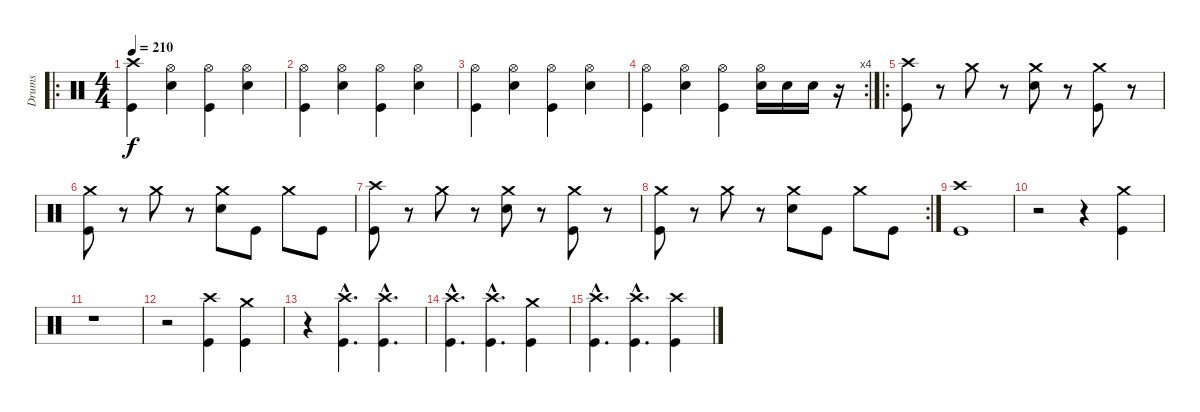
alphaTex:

\track ("Drums" "Drums") {instrument percussion}
\staff {score}
\articulation defaults
\ro
\ts (4 4)
\tempo 210
\clef neutral
\ks c
("Crash high (hit)" "Kick (hit)").4{dy f} ("Hi-Hat (open)" "Snare (hit) 2").4 ("Hi-Hat (open)" "Kick (hit)").4 ("Hi-Hat (open)" "Snare (hit) 2").4 |
("Hi-Hat (open)" "Kick (hit)").4 ("Hi-Hat (open)" "Snare (hit) 2").4 ("Hi-Hat (open)" "Kick (hit)").4 ("Hi-Hat (open)" "Snare (hit) 2").4 |
("Hi-Hat (open)" "Kick (hit)").4 ("Hi-Hat (open)" "Snare (hit) 2").4 ("Hi-Hat (open)" "Kick (hit)").4 ("Hi-Hat (open)" "Snare (hit) 2").4 |
\rc 4
("Hi-Hat (open)" "Kick (hit)").4 ("Hi-Hat (open)" "Snare (hit) 2").4 ("Hi-Hat (open)" "Kick (hit)").4 ("Hi-Hat (open)" "Snare (hit) 2").16 "Snare (hit) 2".16 "Snare (hit) 2".16 r.16 |
\ro
("Crash high (hit)" "Kick (hit)").8 r.8 "Crash medium (hit)".8 r.8 ("Crash medium (hit)" "Snare (hit) 2").8 r.8 ("Crash medium (hit)" "Kick (hit)").8 r.8 |
("Crash medium (hit)" "Kick (hit)").8 r.8 "Crash medium (hit)".8 r.8 ("Crash medium (hit)" "Snare (hit) 2").8 "Kick (hit)".8 "Crash medium (hit)".8 "Kick (hit)".8 |
("Crash high (hit)" "Kick (hit)").8 r.8 "Crash medium (hit)".8 r.8 ("Crash medium (hit)" "Snare (hit) 2").8 r.8 ("Crash medium (hit)" "Kick (hit)").8 r.8 |
\rc 2
("Crash medium (hit)" "Kick (hit)").8 r.8 "Crash medium (hit)".8 r.8 ("Crash medium (hit)" "Snare (hit) 2").8 "Kick (hit)".8 "Crash medium (hit)".8 "Kick (hit)".8 |
("Crash high (hit)" "Kick (hit)").1 |
r.2 r.4 ("Crash medium (hit)" "Kick (hit)").4 |
r.1 |
r.2 ("Crash high (hit)" "Kick (hit)").4 ("Crash medium (hit)" "Kick (hit)").4 |
r.4 ("Crash high (hit)"{hac} "Kick (hit)"{hac}).4{d} ("Crash high (hit)"{hac} "Kick (hit)"{hac}).4{d} |
("Crash high (hit)"{hac} "Kick (hit)"{hac}).4{d} ("Crash high (hit)"{hac} "Kick (hit)"{hac}).4{d} ("Crash medium (hit)" "Kick (hit)").4 |
("Crash high (hit)"{hac} "Kick (hit)"{hac}).4{d} ("Crash high (hit)"{hac} "Kick (hit)"{hac}).4{d} ("Crash high (hit)" "Kick (hit)").4
